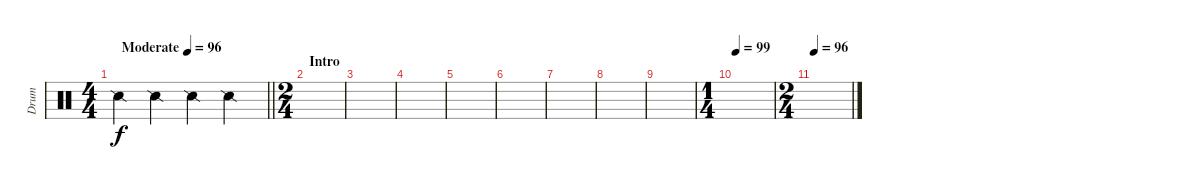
\track ("Drum" "Drum") {instrument percussion}
\staff {score}
\articulation defaults
\ts (4 4)
\tempo (96 "Moderate")
\clef neutral
\barLineRight lightlight
\ks c "Snare (side stick) 2".4{dy f} "Snare (side stick) 2".4 "Snare (side stick) 2".4 "Snare (side stick) 2".4
|
\ts (2 4)
\section ("" "Intro")
|
|
|
|
|
|
|
|
\ts (1 4)
\tempo 99
|
\ts (2 4)
\tempo 96
